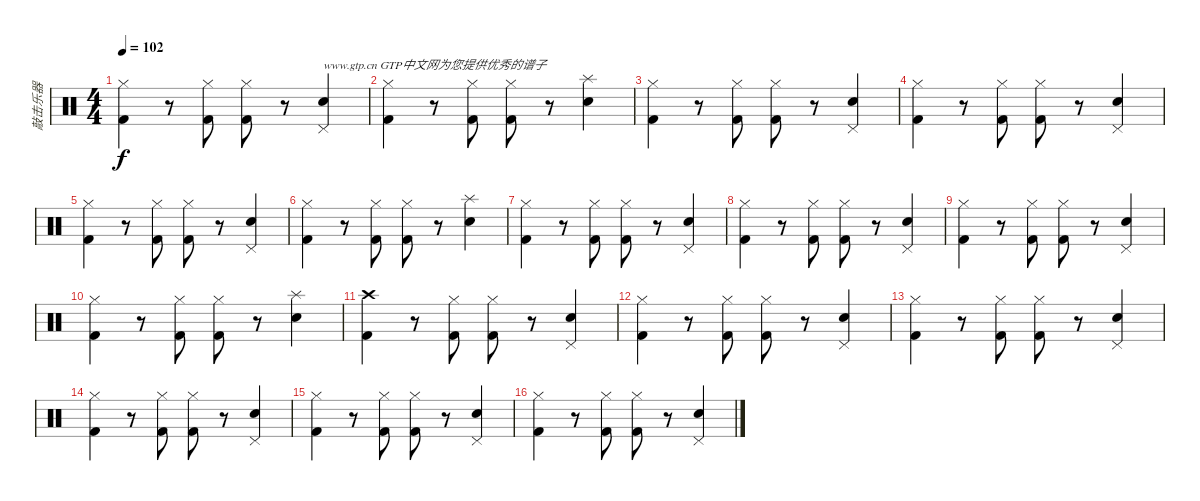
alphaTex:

\track ("敲击乐器" "敲击乐器") {instrument percussion}
\staff {score}
\articulation defaults
\ts (4 4)
\tempo 102
\clef neutral
\ks c
("Hi-Hat (closed)" "Kick (hit) 2").4{dy f} r.8 ("Hi-Hat (closed)" "Kick (hit) 2").8 ("Hi-Hat (closed)" "Kick (hit) 2").8 r.8 ("Pedal Hi-Hat (hit)" "Snare (hit) 2").4{txt "www.gtp.cn GTP中文网为您提供优秀的谱子"} |
("Hi-Hat (closed)" "Kick (hit) 2").4 r.8 ("Hi-Hat (closed)" "Kick (hit) 2").8 ("Hi-Hat (closed)" "Kick (hit) 2").8 r.8 ("Splash (hit)" "Snare (hit) 2").4 |
("Hi-Hat (closed)" "Kick (hit) 2").4 r.8 ("Hi-Hat (closed)" "Kick (hit) 2").8 ("Hi-Hat (closed)" "Kick (hit) 2").8 r.8 ("Pedal Hi-Hat (hit)" "Snare (hit) 2").4 |
("Hi-Hat (closed)" "Kick (hit) 2").4 r.8 ("Hi-Hat (closed)" "Kick (hit) 2").8 ("Hi-Hat (closed)" "Kick (hit) 2").8 r.8 ("Pedal Hi-Hat (hit)" "Snare (hit) 2").4 |
("Hi-Hat (closed)" "Kick (hit) 2").4 r.8 ("Hi-Hat (closed)" "Kick (hit) 2").8 ("Hi-Hat (closed)" "Kick (hit) 2").8 r.8 ("Pedal Hi-Hat (hit)" "Snare (hit) 2").4 |
("Hi-Hat (closed)" "Kick (hit) 2").4 r.8 ("Hi-Hat (closed)" "Kick (hit) 2").8 ("Hi-Hat (closed)" "Kick (hit) 2").8 r.8 ("Splash (hit)" "Snare (hit) 2").4 |
("Hi-Hat (closed)" "Kick (hit) 2").4 r.8 ("Hi-Hat (closed)" "Kick (hit) 2").8 ("Hi-Hat (closed)" "Kick (hit) 2").8 r.8 ("Pedal Hi-Hat (hit)" "Snare (hit) 2").4 |
("Hi-Hat (closed)" "Kick (hit) 2").4 r.8 ("Hi-Hat (closed)" "Kick (hit) 2").8 ("Hi-Hat (closed)" "Kick (hit) 2").8 r.8 ("Pedal Hi-Hat (hit)" "Snare (hit) 2").4 |
("Hi-Hat (closed)" "Kick (hit) 2").4 r.8 ("Hi-Hat (closed)" "Kick (hit) 2").8 ("Hi-Hat (closed)" "Kick (hit) 2").8 r.8 ("Pedal Hi-Hat (hit)" "Snare (hit) 2").4 |
("Hi-Hat (closed)" "Kick (hit) 2").4 r.8 ("Hi-Hat (closed)" "Kick (hit) 2").8 ("Hi-Hat (closed)" "Kick (hit) 2").8 r.8 ("Splash (hit)" "Snare (hit) 2").4 |
("Crash high (hit)" "Kick (hit) 2").4 r.8 ("Hi-Hat (closed)" "Kick (hit) 2").8 ("Hi-Hat (closed)" "Kick (hit) 2").8 r.8 ("Pedal Hi-Hat (hit)" "Snare (hit) 2").4 |
("Hi-Hat (closed)" "Kick (hit) 2").4 r.8 ("Hi-Hat (closed)" "Kick (hit) 2").8 ("Hi-Hat (closed)" "Kick (hit) 2").8 r.8 ("Pedal Hi-Hat (hit)" "Snare (hit) 2").4 |
("Hi-Hat (closed)" "Kick (hit) 2").4 r.8 ("Hi-Hat (closed)" "Kick (hit) 2").8 ("Hi-Hat (closed)" "Kick (hit) 2").8 r.8 ("Pedal Hi-Hat (hit)" "Snare (hit) 2").4 |
("Hi-Hat (closed)" "Kick (hit) 2").4 r.8 ("Hi-Hat (closed)" "Kick (hit) 2").8 ("Hi-Hat (closed)" "Kick (hit) 2").8 r.8 ("Pedal Hi-Hat (hit)" "Snare (hit) 2").4 |
("Hi-Hat (closed)" "Kick (hit) 2").4 r.8 ("Hi-Hat (closed)" "Kick (hit) 2").8 ("Hi-Hat (closed)" "Kick (hit) 2").8 r.8 ("Pedal Hi-Hat (hit)" "Snare (hit) 2").4 |
("Hi-Hat (closed)" "Kick (hit) 2").4 r.8 ("Hi-Hat (closed)" "Kick (hit) 2").8 ("Hi-Hat (closed)" "Kick (hit) 2").8 r.8 ("Pedal Hi-Hat (hit)" "Snare (hit) 2").4
